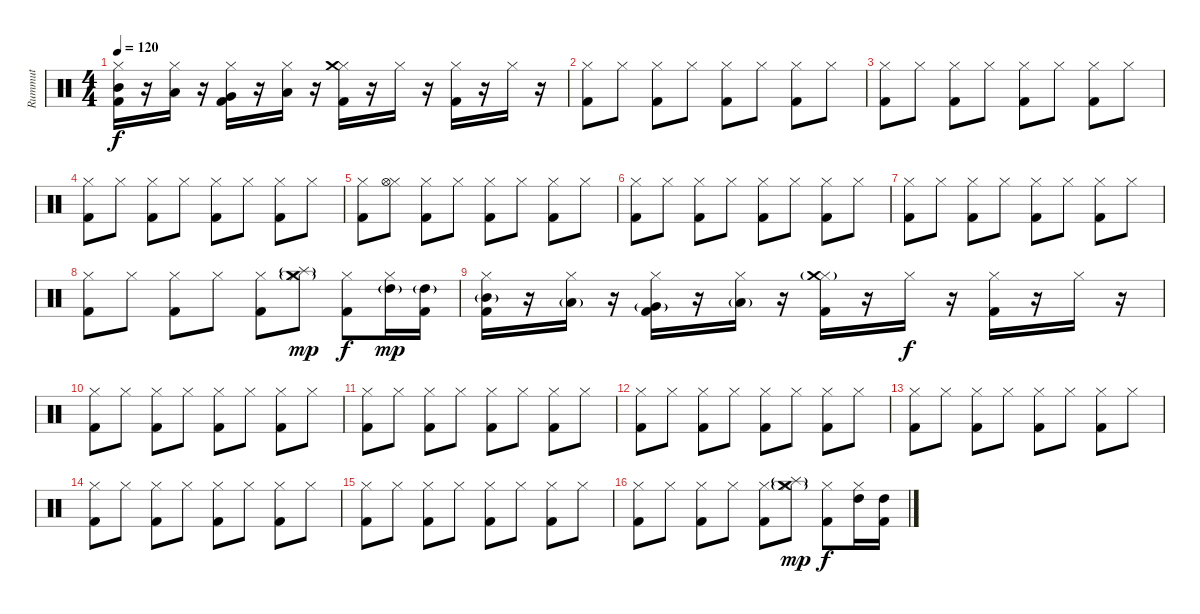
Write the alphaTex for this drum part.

\track ("Rummut" "Rummut") {instrument percussion}
\staff {score}
\articulation defaults
\ts (4 4)
\tempo 120
\clef neutral
\ks c
("Hi-Hat (closed)" "Kick (hit) 2" "Mid Tom (hit)").16{dy f} r.16 ("Hi-Hat (closed)" "Low Tom (hit)").16 r.16 ("Hi-Hat (closed)" "Kick (hit) 2" "Very Low Tom (hit)").16 r.16 ("Hi-Hat (closed)" "Low Floor Tom (hit)").16 r.16 ("Hi-Hat (closed)" "Kick (hit) 2" "Crash medium (hit)").16 r.16 "Hi-Hat (closed)".16 r.16 ("Hi-Hat (closed)" "Kick (hit) 2").16 r.16 "Hi-Hat (closed)".16 r.16 |
("Hi-Hat (closed)" "Kick (hit) 2").8 "Hi-Hat (closed)".8 ("Hi-Hat (closed)" "Kick (hit) 2").8 "Hi-Hat (closed)".8 ("Hi-Hat (closed)" "Kick (hit) 2").8 "Hi-Hat (closed)".8 ("Hi-Hat (closed)" "Kick (hit) 2").8 "Hi-Hat (closed)".8 |
("Hi-Hat (closed)" "Kick (hit) 2").8 "Hi-Hat (closed)".8 ("Hi-Hat (closed)" "Kick (hit) 2").8 "Hi-Hat (closed)".8 ("Hi-Hat (closed)" "Kick (hit) 2").8 "Hi-Hat (closed)".8 ("Hi-Hat (closed)" "Kick (hit) 2").8 "Hi-Hat (closed)".8 |
("Hi-Hat (closed)" "Kick (hit) 2").8 "Hi-Hat (closed)".8 ("Hi-Hat (closed)" "Kick (hit) 2").8 "Hi-Hat (closed)".8 ("Hi-Hat (closed)" "Kick (hit) 2").8 "Hi-Hat (closed)".8 ("Hi-Hat (closed)" "Kick (hit) 2").8 "Hi-Hat (closed)".8 |
("Hi-Hat (closed)" "Kick (hit) 2").8 ("Hi-Hat (closed)" "Hi-Hat (open)").8 ("Hi-Hat (closed)" "Kick (hit) 2").8 "Hi-Hat (closed)".8 ("Hi-Hat (closed)" "Kick (hit) 2").8 "Hi-Hat (closed)".8 ("Hi-Hat (closed)" "Kick (hit) 2").8 "Hi-Hat (closed)".8 |
("Hi-Hat (closed)" "Kick (hit) 2").8 "Hi-Hat (closed)".8 ("Hi-Hat (closed)" "Kick (hit) 2").8 "Hi-Hat (closed)".8 ("Hi-Hat (closed)" "Kick (hit) 2").8 "Hi-Hat (closed)".8 ("Hi-Hat (closed)" "Kick (hit) 2").8 "Hi-Hat (closed)".8 |
("Hi-Hat (closed)" "Kick (hit) 2").8 "Hi-Hat (closed)".8 ("Hi-Hat (closed)" "Kick (hit) 2").8 "Hi-Hat (closed)".8 ("Hi-Hat (closed)" "Kick (hit) 2").8 "Hi-Hat (closed)".8 ("Hi-Hat (closed)" "Kick (hit) 2").8 "Hi-Hat (closed)".8 |
("Hi-Hat (closed)" "Kick (hit) 2").8 "Hi-Hat (closed)".8 ("Hi-Hat (closed)" "Kick (hit) 2").8 "Hi-Hat (closed)".8 ("Hi-Hat (closed)" "Kick (hit) 2").8 ("Hi-Hat (closed)" "Crash medium (hit)"{g} "Splash (hit)"{g}).8{dy mp} ("Hi-Hat (closed)" "Kick (hit) 2").8{dy f} ("Hi-Hat (closed)" "High Tom (hit)"{g}).16{dy mp} ("Kick (hit) 2" "High Tom (hit)"{g}).16 |
("Hi-Hat (closed)" "Kick (hit) 2" "Mid Tom (hit)"{g}).16 r.16 ("Hi-Hat (closed)" "Low Tom (hit)"{g}).16 r.16 ("Hi-Hat (closed)" "Kick (hit) 2" "Very Low Tom (hit)"{g}).16 r.16 ("Hi-Hat (closed)" "Low Floor Tom (hit)"{g}).16 r.16 ("Hi-Hat (closed)" "Kick (hit) 2" "Crash medium (hit)"{g}).16 r.16 "Hi-Hat (closed)".16{dy f} r.16 ("Hi-Hat (closed)" "Kick (hit) 2").16 r.16 "Hi-Hat (closed)".16 r.16 |
("Hi-Hat (closed)" "Kick (hit) 2").8 "Hi-Hat (closed)".8 ("Hi-Hat (closed)" "Kick (hit) 2").8 "Hi-Hat (closed)".8 ("Hi-Hat (closed)" "Kick (hit) 2").8 "Hi-Hat (closed)".8 ("Hi-Hat (closed)" "Kick (hit) 2").8 "Hi-Hat (closed)".8 |
("Hi-Hat (closed)" "Kick (hit) 2").8 "Hi-Hat (closed)".8 ("Hi-Hat (closed)" "Kick (hit) 2").8 "Hi-Hat (closed)".8 ("Hi-Hat (closed)" "Kick (hit) 2").8 "Hi-Hat (closed)".8 ("Hi-Hat (closed)" "Kick (hit) 2").8 "Hi-Hat (closed)".8 |
("Hi-Hat (closed)" "Kick (hit) 2").8 "Hi-Hat (closed)".8 ("Hi-Hat (closed)" "Kick (hit) 2").8 "Hi-Hat (closed)".8 ("Hi-Hat (closed)" "Kick (hit) 2").8 "Hi-Hat (closed)".8 ("Hi-Hat (closed)" "Kick (hit) 2").8 "Hi-Hat (closed)".8 |
("Hi-Hat (closed)" "Kick (hit) 2").8 "Hi-Hat (closed)".8 ("Hi-Hat (closed)" "Kick (hit) 2").8 "Hi-Hat (closed)".8 ("Hi-Hat (closed)" "Kick (hit) 2").8 "Hi-Hat (closed)".8 ("Hi-Hat (closed)" "Kick (hit) 2").8 "Hi-Hat (closed)".8 |
("Hi-Hat (closed)" "Kick (hit) 2").8 "Hi-Hat (closed)".8 ("Hi-Hat (closed)" "Kick (hit) 2").8 "Hi-Hat (closed)".8 ("Hi-Hat (closed)" "Kick (hit) 2").8 "Hi-Hat (closed)".8 ("Hi-Hat (closed)" "Kick (hit) 2").8 "Hi-Hat (closed)".8 |
("Hi-Hat (closed)" "Kick (hit) 2").8 "Hi-Hat (closed)".8 ("Hi-Hat (closed)" "Kick (hit) 2").8 "Hi-Hat (closed)".8 ("Hi-Hat (closed)" "Kick (hit) 2").8 "Hi-Hat (closed)".8 ("Hi-Hat (closed)" "Kick (hit) 2").8 "Hi-Hat (closed)".8 |
("Hi-Hat (closed)" "Kick (hit) 2").8 "Hi-Hat (closed)".8 ("Hi-Hat (closed)" "Kick (hit) 2").8 "Hi-Hat (closed)".8 ("Hi-Hat (closed)" "Kick (hit) 2").8 ("Hi-Hat (closed)" "Crash medium (hit)"{g} "Splash (hit)"{g}).8{dy mp} ("Hi-Hat (closed)" "Kick (hit) 2").8{dy f} ("Hi-Hat (closed)" "High Tom (hit)").16 ("Kick (hit) 2" "High Tom (hit)").16
